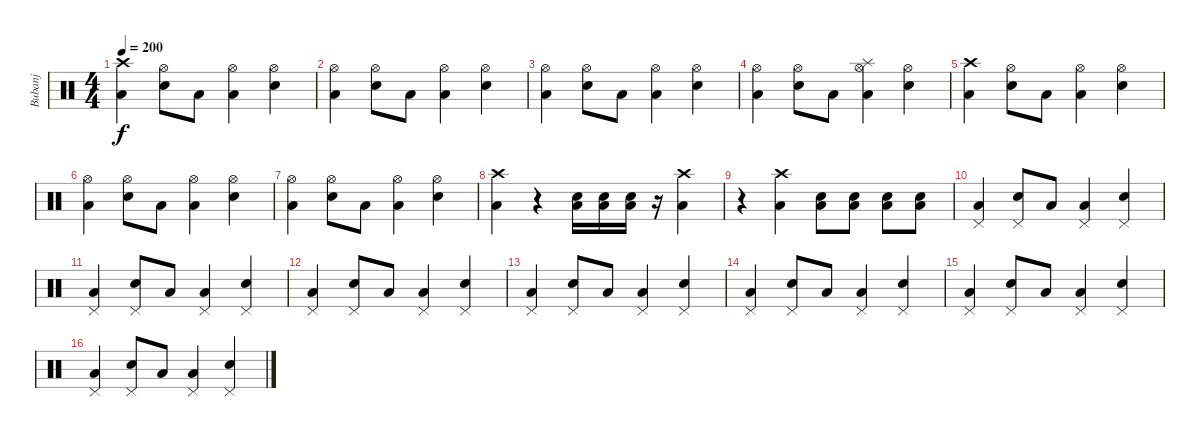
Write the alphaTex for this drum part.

\track ("Bubanj" "Bubanj") {instrument percussion}
\staff {score}
\articulation defaults
\ts (4 4)
\tempo 200
\clef neutral
\ks c
("Crash high (hit)" "Low Tom (hit)").4{dy f} ("Hi-Hat (open)" "Snare (hit) 2").8 "Low Tom (hit)".8 ("Hi-Hat (open)" "Low Tom (hit)").4 ("Hi-Hat (open)" "Snare (hit) 2").4 |
("Hi-Hat (open)" "Low Tom (hit)").4 ("Hi-Hat (open)" "Snare (hit) 2").8 "Low Tom (hit)".8 ("Hi-Hat (open)" "Low Tom (hit)").4 ("Hi-Hat (open)" "Snare (hit) 2").4 |
("Hi-Hat (open)" "Low Tom (hit)").4 ("Hi-Hat (open)" "Snare (hit) 2").8 "Low Tom (hit)".8 ("Hi-Hat (open)" "Low Tom (hit)").4 ("Hi-Hat (open)" "Snare (hit) 2").4 |
("Hi-Hat (open)" "Low Tom (hit)").4 ("Hi-Hat (open)" "Snare (hit) 2").8 "Low Tom (hit)".8 ("Hi-Hat (open)" "Splash (hit)" "Low Tom (hit)").4 ("Hi-Hat (open)" "Snare (hit) 2").4 |
("Crash high (hit)" "Low Tom (hit)").4 ("Hi-Hat (open)" "Snare (hit) 2").8 "Low Tom (hit)".8 ("Hi-Hat (open)" "Low Tom (hit)").4 ("Hi-Hat (open)" "Snare (hit) 2").4 |
("Hi-Hat (open)" "Low Tom (hit)").4 ("Hi-Hat (open)" "Snare (hit) 2").8 "Low Tom (hit)".8 ("Hi-Hat (open)" "Low Tom (hit)").4 ("Hi-Hat (open)" "Snare (hit) 2").4 |
("Hi-Hat (open)" "Low Tom (hit)").4 ("Hi-Hat (open)" "Snare (hit) 2").8 "Low Tom (hit)".8 ("Hi-Hat (open)" "Low Tom (hit)").4 ("Hi-Hat (open)" "Snare (hit) 2").4 |
("Crash high (hit)" "Low Tom (hit)").4 r.4 ("Electric Snare (hit)" "Low Tom (hit)").16 ("Electric Snare (hit)" "Low Tom (hit)").16 ("Electric Snare (hit)" "Low Tom (hit)").16 r.16 ("Crash high (hit)" "Low Tom (hit)").4 |
r.4 ("Crash high (hit)" "Low Tom (hit)").4 ("Snare (hit) 2" "Low Tom (hit)").8 ("Snare (hit) 2" "Low Tom (hit)").8 ("Snare (hit) 2" "Low Tom (hit)").8 ("Snare (hit) 2" "Low Tom (hit)").8 |
("Pedal Hi-Hat (hit)" "Low Tom (hit)").4 ("Pedal Hi-Hat (hit)" "Snare (hit) 2").8 "Low Tom (hit)".8 ("Pedal Hi-Hat (hit)" "Low Tom (hit)").4 ("Pedal Hi-Hat (hit)" "Snare (hit) 2").4 |
("Pedal Hi-Hat (hit)" "Low Tom (hit)").4 ("Pedal Hi-Hat (hit)" "Snare (hit) 2").8 "Low Tom (hit)".8 ("Pedal Hi-Hat (hit)" "Low Tom (hit)").4 ("Pedal Hi-Hat (hit)" "Snare (hit) 2").4 |
("Pedal Hi-Hat (hit)" "Low Tom (hit)").4 ("Pedal Hi-Hat (hit)" "Snare (hit) 2").8 "Low Tom (hit)".8 ("Pedal Hi-Hat (hit)" "Low Tom (hit)").4 ("Pedal Hi-Hat (hit)" "Snare (hit) 2").4 |
("Pedal Hi-Hat (hit)" "Low Tom (hit)").4 ("Pedal Hi-Hat (hit)" "Snare (hit) 2").8 "Low Tom (hit)".8 ("Pedal Hi-Hat (hit)" "Low Tom (hit)").4 ("Pedal Hi-Hat (hit)" "Snare (hit) 2").4 |
("Pedal Hi-Hat (hit)" "Low Tom (hit)").4 ("Pedal Hi-Hat (hit)" "Snare (hit) 2").8 "Low Tom (hit)".8 ("Pedal Hi-Hat (hit)" "Low Tom (hit)").4 ("Pedal Hi-Hat (hit)" "Snare (hit) 2").4 |
("Pedal Hi-Hat (hit)" "Low Tom (hit)").4 ("Pedal Hi-Hat (hit)" "Snare (hit) 2").8 "Low Tom (hit)".8 ("Pedal Hi-Hat (hit)" "Low Tom (hit)").4 ("Pedal Hi-Hat (hit)" "Snare (hit) 2").4 |
("Pedal Hi-Hat (hit)" "Low Tom (hit)").4 ("Pedal Hi-Hat (hit)" "Snare (hit) 2").8 "Low Tom (hit)".8 ("Pedal Hi-Hat (hit)" "Low Tom (hit)").4 ("Pedal Hi-Hat (hit)" "Snare (hit) 2").4
